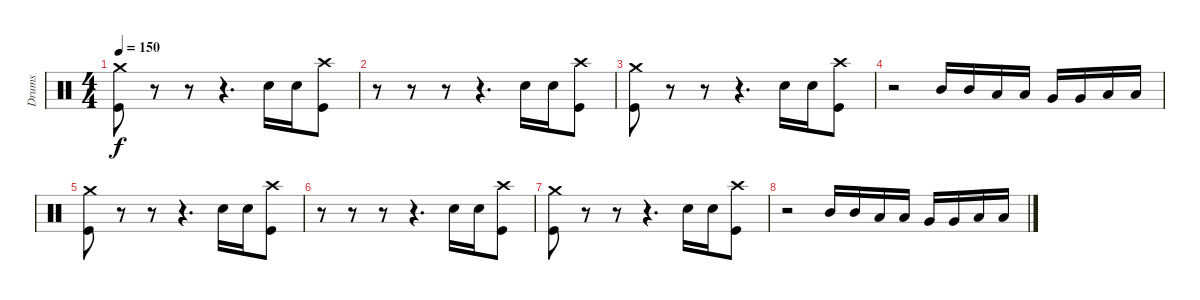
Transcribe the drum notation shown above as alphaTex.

\track ("Drums" "Drums") {instrument percussion}
\staff {score}
\articulation defaults
\ts (4 4)
\tempo 150
\clef neutral
\ks c
("Crash medium (hit)" "Kick (hit)").8{dy f} r.8 r.8 r.4{d} "Electric Snare (hit)".16 "Electric Snare (hit)".16 ("Crash high (hit)" "Kick (hit)").8 |
r.8 r.8 r.8 r.4{d} "Electric Snare (hit)".16 "Electric Snare (hit)".16 ("Crash high (hit)" "Kick (hit)").8 |
("Crash medium (hit)" "Kick (hit)").8 r.8 r.8 r.4{d} "Electric Snare (hit)".16 "Electric Snare (hit)".16 ("Crash high (hit)" "Kick (hit)").8 |
r.2{volume 2} "Mid Tom (hit)".16 "Mid Tom (hit)".16 "Low Tom (hit)".16 "Low Tom (hit)".16 "Very Low Tom (hit)".16 "Very Low Tom (hit)".16 "Low Tom (hit)".16 "Low Tom (hit)".16 |
("Crash medium (hit)" "Kick (hit)").8 r.8 r.8 r.4{d} "Electric Snare (hit)".16 "Electric Snare (hit)".16 ("Crash high (hit)" "Kick (hit)").8 |
r.8 r.8 r.8 r.4{d} "Electric Snare (hit)".16 "Electric Snare (hit)".16 ("Crash high (hit)" "Kick (hit)").8 |
("Crash medium (hit)" "Kick (hit)").8 r.8 r.8 r.4{d} "Electric Snare (hit)".16 "Electric Snare (hit)".16 ("Crash high (hit)" "Kick (hit)").8 |
r.2 "Mid Tom (hit)".16 "Mid Tom (hit)".16 "Low Tom (hit)".16 "Low Tom (hit)".16 "Very Low Tom (hit)".16 "Very Low Tom (hit)".16 "Low Tom (hit)".16 "Low Tom (hit)".16
